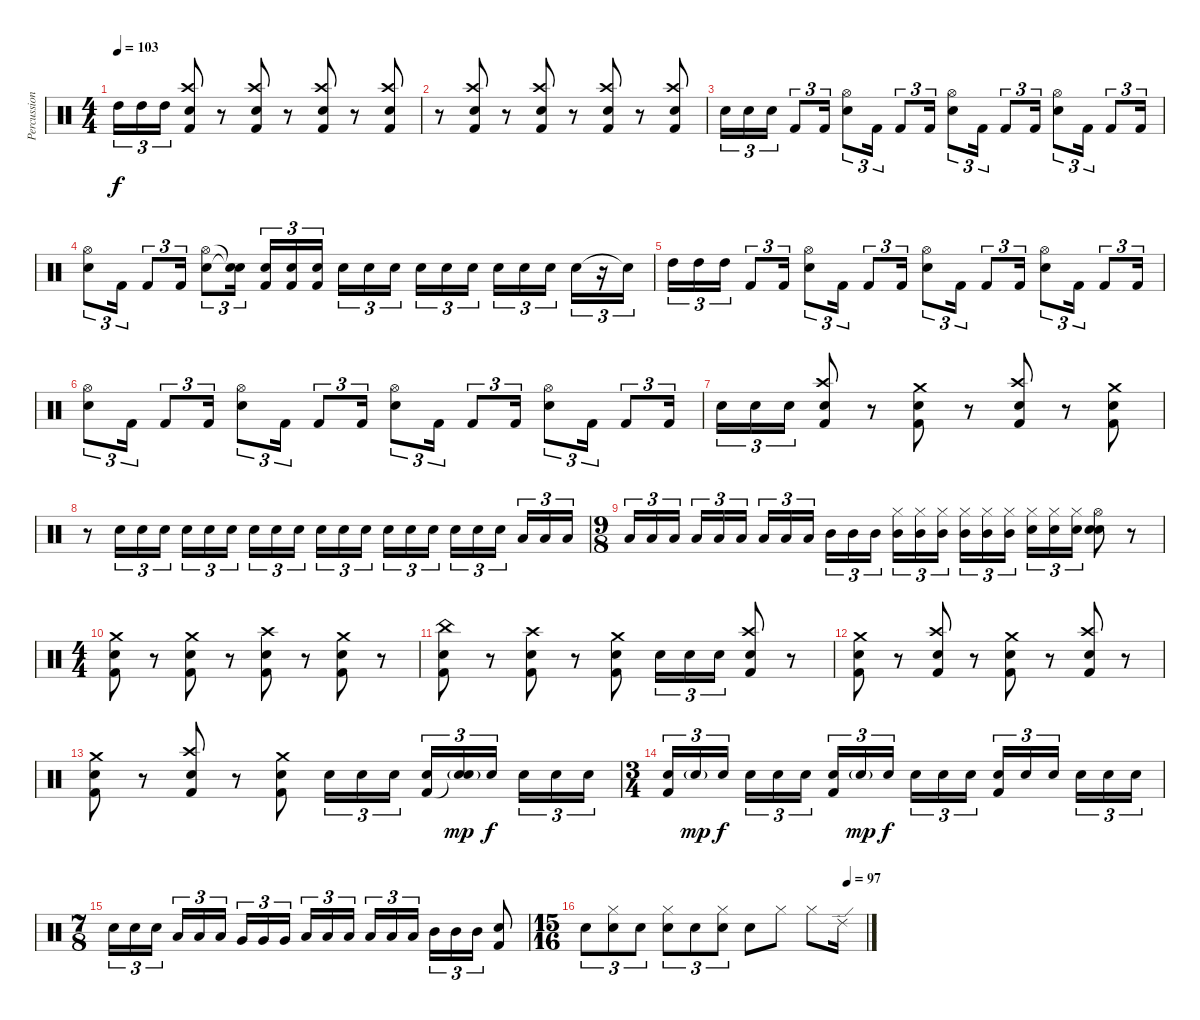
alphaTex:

\track ("Percussion" "Percussion") {instrument percussion}
\staff {score}
\articulation defaults
\ts (4 4)
\tempo 103
\clef neutral
\ks c "High Tom (hit)".16{tu (3 2) dy f} "High Tom (hit)".16{tu (3 2)} "High Tom (hit)".16{tu (3 2)}
("Electric Snare (hit)" "Crash high (hit)" "Kick (hit) 2").8 r.8 ("Electric Snare (hit)" "Crash high (hit)" "Kick (hit) 2").8 r.8 ("Electric Snare (hit)" "Crash high (hit)" "Kick (hit) 2").8 r.8 ("Electric Snare (hit)" "Crash high (hit)" "Kick (hit) 2").8 |
r.8 ("Electric Snare (hit)" "Crash high (hit)" "Kick (hit) 2").8 r.8 ("Electric Snare (hit)" "Crash high (hit)" "Kick (hit) 2").8 r.8 ("Electric Snare (hit)" "Crash high (hit)" "Kick (hit) 2").8 r.8 ("Electric Snare (hit)" "Crash high (hit)" "Kick (hit) 2").8 |
"Electric Snare (hit)".16{tu (3 2)} "Electric Snare (hit)".16{tu (3 2)} "Electric Snare (hit)".16{tu (3 2)} "Kick (hit) 2".8{tu (3 2)} "Kick (hit) 2".16{tu (3 2)} ("Electric Snare (hit)" "Hi-Hat (open)").8{tu (3 2)} "Kick (hit) 2".16{tu (3 2)} "Kick (hit) 2".8{tu (3 2)} "Kick (hit) 2".16{tu (3 2)} ("Electric Snare (hit)" "Hi-Hat (open)").8{tu (3 2)} "Kick (hit) 2".16{tu (3 2)} "Kick (hit) 2".8{tu (3 2)} "Kick (hit) 2".16{tu (3 2)} ("Electric Snare (hit)" "Hi-Hat (open)").8{tu (3 2)} "Kick (hit) 2".16{tu (3 2)} "Kick (hit) 2".8{tu (3 2)} "Kick (hit) 2".16{tu (3 2)} |
("Electric Snare (hit)" "Hi-Hat (open)").8{tu (3 2)} "Kick (hit) 2".16{tu (3 2)} "Kick (hit) 2".8{tu (3 2)} "Kick (hit) 2".16{tu (3 2)} ("Electric Snare (hit)" "Hi-Hat (open)").8{tu (3 2)} ("Snare (hit)"{t} "Snare (hit)"{t}).16{tu (3 2)} ("Electric Snare (hit)" "Kick (hit) 2").16{tu (3 2)} ("Electric Snare (hit)" "Kick (hit) 2").16{tu (3 2)} ("Electric Snare (hit)" "Kick (hit) 2").16{tu (3 2)} "Electric Snare (hit)".16{tu (3 2)} "Electric Snare (hit)".16{tu (3 2)} "Electric Snare (hit)".16{tu (3 2)} "Electric Snare (hit)".16{tu (3 2)} "Electric Snare (hit)".16{tu (3 2)} "Electric Snare (hit)".16{tu (3 2)} "Electric Snare (hit)".16{tu (3 2)} "Electric Snare (hit)".16{tu (3 2)} "Electric Snare (hit)".16{tu (3 2)} "Electric Snare (hit)".16{tu (3 2)} r.16{tu (3 2)} "Snare (hit)"{t}.16{tu (3 2)} |
"High Tom (hit)".16{tu (3 2)} "High Tom (hit)".16{tu (3 2)} "High Tom (hit)".16{tu (3 2)} "Kick (hit) 2".8{tu (3 2)} "Kick (hit) 2".16{tu (3 2)} ("Electric Snare (hit)" "Hi-Hat (open)").8{tu (3 2)} "Kick (hit) 2".16{tu (3 2)} "Kick (hit) 2".8{tu (3 2)} "Kick (hit) 2".16{tu (3 2)} ("Electric Snare (hit)" "Hi-Hat (open)").8{tu (3 2)} "Kick (hit) 2".16{tu (3 2)} "Kick (hit) 2".8{tu (3 2)} "Kick (hit) 2".16{tu (3 2)} ("Electric Snare (hit)" "Hi-Hat (open)").8{tu (3 2)} "Kick (hit) 2".16{tu (3 2)} "Kick (hit) 2".8{tu (3 2)} "Kick (hit) 2".16{tu (3 2)} |
("Electric Snare (hit)" "Hi-Hat (open)").8{tu (3 2)} "Kick (hit) 2".16{tu (3 2)} "Kick (hit) 2".8{tu (3 2)} "Kick (hit) 2".16{tu (3 2)} ("Electric Snare (hit)" "Hi-Hat (open)").8{tu (3 2)} "Kick (hit) 2".16{tu (3 2)} "Kick (hit) 2".8{tu (3 2)} "Kick (hit) 2".16{tu (3 2)} ("Electric Snare (hit)" "Hi-Hat (open)").8{tu (3 2)} "Kick (hit) 2".16{tu (3 2)} "Kick (hit) 2".8{tu (3 2)} "Kick (hit) 2".16{tu (3 2)} ("Electric Snare (hit)" "Hi-Hat (open)").8{tu (3 2)} "Kick (hit) 2".16{tu (3 2)} "Kick (hit) 2".8{tu (3 2)} "Kick (hit) 2".16{tu (3 2)} |
"Electric Snare (hit)".16{tu (3 2)} "Electric Snare (hit)".16{tu (3 2)} "Electric Snare (hit)".16{tu (3 2)} ("Crash high (hit)" "Electric Snare (hit)" "Kick (hit) 2").8 r.8 ("Electric Snare (hit)" "Crash medium (hit)" "Kick (hit) 2").8 r.8 ("Crash high (hit)" "Electric Snare (hit)" "Kick (hit) 2").8 r.8 ("Electric Snare (hit)" "Crash medium (hit)" "Kick (hit) 2").8 |
r.8 "Electric Snare (hit)".16{tu (3 2)} "Electric Snare (hit)".16{tu (3 2)} "Electric Snare (hit)".16{tu (3 2)} "Electric Snare (hit)".16{tu (3 2)} "Electric Snare (hit)".16{tu (3 2)} "Electric Snare (hit)".16{tu (3 2)} "Snare (hit) 2".16{tu (3 2)} "Snare (hit) 2".16{tu (3 2)} "Snare (hit) 2".16{tu (3 2)} "Snare (hit) 2".16{tu (3 2)} "Snare (hit) 2".16{tu (3 2)} "Snare (hit) 2".16{tu (3 2)} "Snare (hit) 2".16{tu (3 2)} "Snare (hit) 2".16{tu (3 2)} "Snare (hit) 2".16{tu (3 2)} "Snare (hit) 2".16{tu (3 2)} "Snare (hit) 2".16{tu (3 2)} "Snare (hit) 2".16{tu (3 2)} "Low Tom (hit)".16{tu (3 2)} "Low Tom (hit)".16{tu (3 2)} "Low Tom (hit)".16{tu (3 2)} |
\ts (9 8)
"Low Tom (hit)".16{tu (3 2)} "Low Tom (hit)".16{tu (3 2)} "Low Tom (hit)".16{tu (3 2)} "Low Tom (hit)".16{tu (3 2)} "Low Tom (hit)".16{tu (3 2)} "Low Tom (hit)".16{tu (3 2)} "Low Tom (hit)".16{tu (3 2)} "Low Tom (hit)".16{tu (3 2)} "Low Tom (hit)".16{tu (3 2)} "Mid Tom (hit)".16{tu (3 2)} "Mid Tom (hit)".16{tu (3 2)} "Mid Tom (hit)".16{tu (3 2)} ("Hi-Hat (closed)" "Mid Tom (hit)").16{tu (3 2)} ("Hi-Hat (closed)" "Mid Tom (hit)").16{tu (3 2)} ("Hi-Hat (closed)" "Mid Tom (hit)").16{tu (3 2)} ("Hi-Hat (closed)" "Mid Tom (hit)").16{tu (3 2)} ("Hi-Hat (closed)" "Mid Tom (hit)").16{tu (3 2)} ("Hi-Hat (closed)" "Mid Tom (hit)").16{tu (3 2)} ("Hi-Hat (closed)" "Snare (hit) 2").16{tu (3 2)} ("Hi-Hat (closed)" "Snare (hit) 2").16{tu (3 2)} ("Hi-Hat (closed)" "Snare (hit) 2").16{tu (3 2)} ("Hi-Hat (open)" "Electric Snare (hit)" "Snare (hit) 2").8 r.8 |
\ts (4 4)
("Snare (hit) 2" "Crash medium (hit)" "Kick (hit) 2").8 r.8 ("Snare (hit) 2" "Crash medium (hit)" "Kick (hit) 2").8 r.8 ("Snare (hit) 2" "Crash high (hit)" "Kick (hit) 2").8 r.8 ("Snare (hit) 2" "Crash medium (hit)" "Kick (hit) 2").8 r.8 |
("Snare (hit) 2" "China (hit)" "Kick (hit) 2").8 r.8 ("Snare (hit) 2" "Crash high (hit)" "Kick (hit) 2").8 r.8 ("Snare (hit) 2" "Crash medium (hit)" "Kick (hit) 2").8 "Electric Snare (hit)".16{tu (3 2)} "Electric Snare (hit)".16{tu (3 2)} "Electric Snare (hit)".16{tu (3 2)} ("Crash high (hit)" "Electric Snare (hit)" "Kick (hit) 2").8 r.8 |
("Electric Snare (hit)" "Crash medium (hit)" "Kick (hit) 2").8 r.8 ("Electric Snare (hit)" "Crash high (hit)" "Kick (hit) 2").8 r.8 ("Electric Snare (hit)" "Crash medium (hit)" "Kick (hit) 2").8 r.8 ("Electric Snare (hit)" "Crash high (hit)" "Kick (hit) 2").8 r.8 |
("Electric Snare (hit)" "Crash medium (hit)" "Kick (hit) 2").8 r.8 ("Electric Snare (hit)" "Crash high (hit)" "Kick (hit) 2").8 r.8 ("Electric Snare (hit)" "Crash medium (hit)" "Kick (hit) 2").8 "Electric Snare (hit)".16{tu (3 2)} "Electric Snare (hit)".16{tu (3 2)} "Electric Snare (hit)".16{tu (3 2)} ("Electric Snare (hit)" "Kick (hit) 2").16{tu (3 2)} ("Electric Snare (hit)"{g} "Snare (hit)"{t}).16{tu (3 2) dy mp} "Electric Snare (hit)".16{tu (3 2) dy f} "Electric Snare (hit)".16{tu (3 2)} "Electric Snare (hit)".16{tu (3 2)} "Electric Snare (hit)".16{tu (3 2)} |
\ts (3 4)
("Electric Snare (hit)" "Kick (hit) 2").16{tu (3 2)} "Electric Snare (hit)"{g}.16{tu (3 2) dy mp} "Electric Snare (hit)".16{tu (3 2) dy f} "Electric Snare (hit)".16{tu (3 2)} "Electric Snare (hit)".16{tu (3 2)} "Electric Snare (hit)".16{tu (3 2)} ("Electric Snare (hit)" "Kick (hit) 2").16{tu (3 2)} "Electric Snare (hit)"{g}.16{tu (3 2) dy mp} "Electric Snare (hit)".16{tu (3 2) dy f} "Electric Snare (hit)".16{tu (3 2)} "Electric Snare (hit)".16{tu (3 2)} "Electric Snare (hit)".16{tu (3 2)} ("Electric Snare (hit)" "Kick (hit) 2").16{tu (3 2)} "Electric Snare (hit)".16{tu (3 2)} "Electric Snare (hit)".16{tu (3 2)} "Electric Snare (hit)".16{tu (3 2)} "Electric Snare (hit)".16{tu (3 2)} "Electric Snare (hit)".16{tu (3 2)} |
\ts (7 8)
"Electric Snare (hit)".16{tu (3 2) volume 12} "Electric Snare (hit)".16{tu (3 2)} "Electric Snare (hit)".16{tu (3 2)} "Low Floor Tom (hit)".16{tu (3 2)} "Low Floor Tom (hit)".16{tu (3 2)} "Low Floor Tom (hit)".16{tu (3 2)} "Very Low Tom (hit)".16{tu (3 2)} "Very Low Tom (hit)".16{tu (3 2)} "Very Low Tom (hit)".16{tu (3 2)} "Low Tom (hit)".16{tu (3 2)} "Low Tom (hit)".16{tu (3 2)} "Low Tom (hit)".16{tu (3 2)} "Low Tom (hit)".16{tu (3 2)} "Low Tom (hit)".16{tu (3 2)} "Low Tom (hit)".16{tu (3 2)} "Mid Tom (hit)".16{tu (3 2)} "Mid Tom (hit)".16{tu (3 2)} "Mid Tom (hit)".16{tu (3 2)} ("Electric Snare (hit)" "Kick (hit) 2").8 |
\ts (15 16)
\tempo (97 0.9333333333333333)
"Electric Snare (hit)".8{tu (3 2)} ("Electric Snare (hit)" "Hi-Hat (closed)").8{tu (3 2)} "Electric Snare (hit)".8{tu (3 2)} ("Electric Snare (hit)" "Hi-Hat (closed)").8{tu (3 2)} "Electric Snare (hit)".8{tu (3 2)} ("Electric Snare (hit)" "Hi-Hat (closed)").8{tu (3 2)} "Electric Snare (hit)".8 "Hi-Hat (closed)".8 "Hi-Hat (closed)".8 "Ride (edge) 2".16
